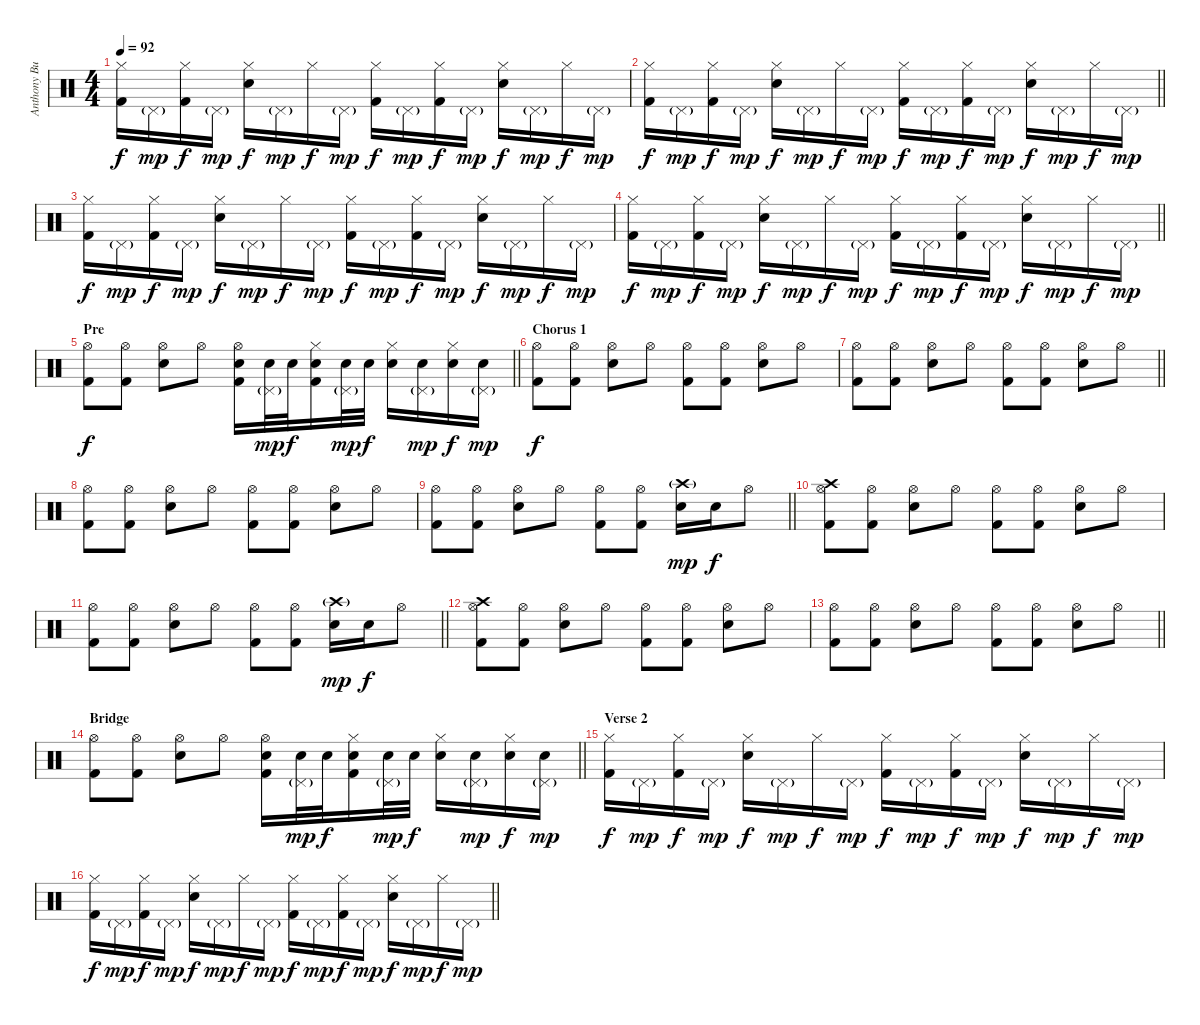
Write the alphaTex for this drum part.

\track ("Anthony Burulcich" "Anthony Bu") {instrument percussion}
\staff {score}
\articulation defaults
\ts (4 4)
\tempo 92
\clef neutral
\ks c
("Hi-Hat (closed)" "Kick (hit) 2").16{dy f} "Pedal Hi-Hat (hit)"{g}.16{dy mp} ("Hi-Hat (closed)" "Kick (hit) 2").16{dy f} "Pedal Hi-Hat (hit)"{g}.16{dy mp} ("Hi-Hat (closed)" "Snare (hit) 2").16{dy f} "Pedal Hi-Hat (hit)"{g}.16{dy mp} "Hi-Hat (closed)".16{dy f} "Pedal Hi-Hat (hit)"{g}.16{dy mp} ("Hi-Hat (closed)" "Kick (hit) 2").16{dy f} "Pedal Hi-Hat (hit)"{g}.16{dy mp} ("Hi-Hat (closed)" "Kick (hit) 2").16{dy f} "Pedal Hi-Hat (hit)"{g}.16{dy mp} ("Hi-Hat (closed)" "Snare (hit) 2").16{dy f} "Pedal Hi-Hat (hit)"{g}.16{dy mp} "Hi-Hat (closed)".16{dy f} "Pedal Hi-Hat (hit)"{g}.16{dy mp} |
\barLineRight lightlight
("Hi-Hat (closed)" "Kick (hit) 2").16{dy f} "Pedal Hi-Hat (hit)"{g}.16{dy mp} ("Hi-Hat (closed)" "Kick (hit) 2").16{dy f} "Pedal Hi-Hat (hit)"{g}.16{dy mp} ("Hi-Hat (closed)" "Snare (hit) 2").16{dy f} "Pedal Hi-Hat (hit)"{g}.16{dy mp} "Hi-Hat (closed)".16{dy f} "Pedal Hi-Hat (hit)"{g}.16{dy mp} ("Hi-Hat (closed)" "Kick (hit) 2").16{dy f} "Pedal Hi-Hat (hit)"{g}.16{dy mp} ("Hi-Hat (closed)" "Kick (hit) 2").16{dy f} "Pedal Hi-Hat (hit)"{g}.16{dy mp} ("Hi-Hat (closed)" "Snare (hit) 2").16{dy f} "Pedal Hi-Hat (hit)"{g}.16{dy mp} "Hi-Hat (closed)".16{dy f} "Pedal Hi-Hat (hit)"{g}.16{dy mp} |
("Hi-Hat (closed)" "Kick (hit) 2").16{dy f} "Pedal Hi-Hat (hit)"{g}.16{dy mp} ("Hi-Hat (closed)" "Kick (hit) 2").16{dy f} "Pedal Hi-Hat (hit)"{g}.16{dy mp} ("Hi-Hat (closed)" "Snare (hit) 2").16{dy f} "Pedal Hi-Hat (hit)"{g}.16{dy mp} "Hi-Hat (closed)".16{dy f} "Pedal Hi-Hat (hit)"{g}.16{dy mp} ("Hi-Hat (closed)" "Kick (hit) 2").16{dy f} "Pedal Hi-Hat (hit)"{g}.16{dy mp} ("Hi-Hat (closed)" "Kick (hit) 2").16{dy f} "Pedal Hi-Hat (hit)"{g}.16{dy mp} ("Hi-Hat (closed)" "Snare (hit) 2").16{dy f} "Pedal Hi-Hat (hit)"{g}.16{dy mp} "Hi-Hat (closed)".16{dy f} "Pedal Hi-Hat (hit)"{g}.16{dy mp} |
\barLineRight lightlight
("Hi-Hat (closed)" "Kick (hit) 2").16{dy f} "Pedal Hi-Hat (hit)"{g}.16{dy mp} ("Hi-Hat (closed)" "Kick (hit) 2").16{dy f} "Pedal Hi-Hat (hit)"{g}.16{dy mp} ("Hi-Hat (closed)" "Snare (hit) 2").16{dy f} "Pedal Hi-Hat (hit)"{g}.16{dy mp} "Hi-Hat (closed)".16{dy f} "Pedal Hi-Hat (hit)"{g}.16{dy mp} ("Hi-Hat (closed)" "Kick (hit) 2").16{dy f} "Pedal Hi-Hat (hit)"{g}.16{dy mp} ("Hi-Hat (closed)" "Kick (hit) 2").16{dy f} "Pedal Hi-Hat (hit)"{g}.16{dy mp} ("Hi-Hat (closed)" "Snare (hit) 2").16{dy f} "Pedal Hi-Hat (hit)"{g}.16{dy mp} "Hi-Hat (closed)".16{dy f} "Pedal Hi-Hat (hit)"{g}.16{dy mp} |
\section ("" "Pre")
\barLineRight lightlight
("Hi-Hat (open)" "Kick (hit) 2").8{dy f} ("Hi-Hat (open)" "Kick (hit) 2").8 ("Hi-Hat (open)" "Snare (hit) 2").8 "Hi-Hat (open)".8 ("Hi-Hat (open)" "Snare (hit) 2" "Kick (hit) 2").16 ("Pedal Hi-Hat (hit)"{g} "Snare (hit) 2").32{dy mp} "Snare (hit) 2".32{dy f} ("Hi-Hat (closed)" "Snare (hit) 2" "Kick (hit) 2").16 ("Pedal Hi-Hat (hit)"{g} "Snare (hit) 2").32{dy mp} "Snare (hit) 2".32{dy f} ("Hi-Hat (closed)" "Snare (hit) 2").16 ("Pedal Hi-Hat (hit)"{g} "Snare (hit) 2").16{dy mp} ("Hi-Hat (closed)" "Snare (hit) 2").16{dy f} ("Pedal Hi-Hat (hit)"{g} "Snare (hit) 2").16{dy mp} |
\section ("" "Chorus 1")
("Hi-Hat (open)" "Kick (hit) 2").8{dy f} ("Hi-Hat (open)" "Kick (hit) 2").8 ("Hi-Hat (open)" "Snare (hit) 2").8 "Hi-Hat (open)".8 ("Hi-Hat (open)" "Kick (hit) 2").8 ("Hi-Hat (open)" "Kick (hit) 2").8 ("Hi-Hat (open)" "Snare (hit) 2").8 "Hi-Hat (open)".8 |
\barLineRight lightlight
("Hi-Hat (open)" "Kick (hit) 2").8 ("Hi-Hat (open)" "Kick (hit) 2").8 ("Hi-Hat (open)" "Snare (hit) 2").8 "Hi-Hat (open)".8 ("Hi-Hat (open)" "Kick (hit) 2").8 ("Hi-Hat (open)" "Kick (hit) 2").8 ("Hi-Hat (open)" "Snare (hit) 2").8 "Hi-Hat (open)".8 |
("Hi-Hat (open)" "Kick (hit) 2").8 ("Hi-Hat (open)" "Kick (hit) 2").8 ("Hi-Hat (open)" "Snare (hit) 2").8 "Hi-Hat (open)".8 ("Hi-Hat (open)" "Kick (hit) 2").8 ("Hi-Hat (open)" "Kick (hit) 2").8 ("Hi-Hat (open)" "Snare (hit) 2").8 "Hi-Hat (open)".8 |
\barLineRight lightlight
("Hi-Hat (open)" "Kick (hit) 2").8 ("Hi-Hat (open)" "Kick (hit) 2").8 ("Hi-Hat (open)" "Snare (hit) 2").8 "Hi-Hat (open)".8 ("Hi-Hat (open)" "Kick (hit) 2").8 ("Hi-Hat (open)" "Kick (hit) 2").8 ("Snare (hit) 2" "Crash high (hit)"{g}).16{dy mp} "Snare (hit) 2".16{dy f} "Hi-Hat (open)".8 |
("Hi-Hat (open)" "Crash high (hit)" "Kick (hit) 2").8 ("Hi-Hat (open)" "Kick (hit) 2").8 ("Hi-Hat (open)" "Snare (hit) 2").8 "Hi-Hat (open)".8 ("Hi-Hat (open)" "Kick (hit) 2").8 ("Hi-Hat (open)" "Kick (hit) 2").8 ("Hi-Hat (open)" "Snare (hit) 2").8 "Hi-Hat (open)".8 |
\barLineRight lightlight
("Hi-Hat (open)" "Kick (hit) 2").8 ("Hi-Hat (open)" "Kick (hit) 2").8 ("Hi-Hat (open)" "Snare (hit) 2").8 "Hi-Hat (open)".8 ("Hi-Hat (open)" "Kick (hit) 2").8 ("Hi-Hat (open)" "Kick (hit) 2").8 ("Snare (hit) 2" "Crash high (hit)"{g}).16{dy mp} "Snare (hit) 2".16{dy f} "Hi-Hat (open)".8 |
("Hi-Hat (open)" "Crash high (hit)" "Kick (hit) 2").8 ("Hi-Hat (open)" "Kick (hit) 2").8 ("Hi-Hat (open)" "Snare (hit) 2").8 "Hi-Hat (open)".8 ("Hi-Hat (open)" "Kick (hit) 2").8 ("Hi-Hat (open)" "Kick (hit) 2").8 ("Hi-Hat (open)" "Snare (hit) 2").8 "Hi-Hat (open)".8 |
\barLineRight lightlight
("Hi-Hat (open)" "Kick (hit) 2").8 ("Hi-Hat (open)" "Kick (hit) 2").8 ("Hi-Hat (open)" "Snare (hit) 2").8 "Hi-Hat (open)".8 ("Hi-Hat (open)" "Kick (hit) 2").8 ("Hi-Hat (open)" "Kick (hit) 2").8 ("Hi-Hat (open)" "Snare (hit) 2").8 "Hi-Hat (open)".8 |
\section ("" "Bridge")
\barLineRight lightlight
("Hi-Hat (open)" "Kick (hit) 2").8 ("Hi-Hat (open)" "Kick (hit) 2").8 ("Hi-Hat (open)" "Snare (hit) 2").8 "Hi-Hat (open)".8 ("Hi-Hat (open)" "Snare (hit) 2" "Kick (hit) 2").16 ("Pedal Hi-Hat (hit)"{g} "Snare (hit) 2").32{dy mp} "Snare (hit) 2".32{dy f} ("Hi-Hat (closed)" "Snare (hit) 2" "Kick (hit) 2").16 ("Pedal Hi-Hat (hit)"{g} "Snare (hit) 2").32{dy mp} "Snare (hit) 2".32{dy f} ("Hi-Hat (closed)" "Snare (hit) 2").16 ("Pedal Hi-Hat (hit)"{g} "Snare (hit) 2").16{dy mp} ("Hi-Hat (closed)" "Snare (hit) 2").16{dy f} ("Pedal Hi-Hat (hit)"{g} "Snare (hit) 2").16{dy mp} |
\section ("" "Verse 2")
("Hi-Hat (closed)" "Kick (hit) 2").16{dy f} "Pedal Hi-Hat (hit)"{g}.16{dy mp} ("Hi-Hat (closed)" "Kick (hit) 2").16{dy f} "Pedal Hi-Hat (hit)"{g}.16{dy mp} ("Hi-Hat (closed)" "Snare (hit) 2").16{dy f} "Pedal Hi-Hat (hit)"{g}.16{dy mp} "Hi-Hat (closed)".16{dy f} "Pedal Hi-Hat (hit)"{g}.16{dy mp} ("Hi-Hat (closed)" "Kick (hit) 2").16{dy f} "Pedal Hi-Hat (hit)"{g}.16{dy mp} ("Hi-Hat (closed)" "Kick (hit) 2").16{dy f} "Pedal Hi-Hat (hit)"{g}.16{dy mp} ("Hi-Hat (closed)" "Snare (hit) 2").16{dy f} "Pedal Hi-Hat (hit)"{g}.16{dy mp} "Hi-Hat (closed)".16{dy f} "Pedal Hi-Hat (hit)"{g}.16{dy mp} |
\barLineRight lightlight
("Hi-Hat (closed)" "Kick (hit) 2").16{dy f} "Pedal Hi-Hat (hit)"{g}.16{dy mp} ("Hi-Hat (closed)" "Kick (hit) 2").16{dy f} "Pedal Hi-Hat (hit)"{g}.16{dy mp} ("Hi-Hat (closed)" "Snare (hit) 2").16{dy f} "Pedal Hi-Hat (hit)"{g}.16{dy mp} "Hi-Hat (closed)".16{dy f} "Pedal Hi-Hat (hit)"{g}.16{dy mp} ("Hi-Hat (closed)" "Kick (hit) 2").16{dy f} "Pedal Hi-Hat (hit)"{g}.16{dy mp} ("Hi-Hat (closed)" "Kick (hit) 2").16{dy f} "Pedal Hi-Hat (hit)"{g}.16{dy mp} ("Hi-Hat (closed)" "Snare (hit) 2").16{dy f} "Pedal Hi-Hat (hit)"{g}.16{dy mp} "Hi-Hat (closed)".16{dy f} "Pedal Hi-Hat (hit)"{g}.16{dy mp}
